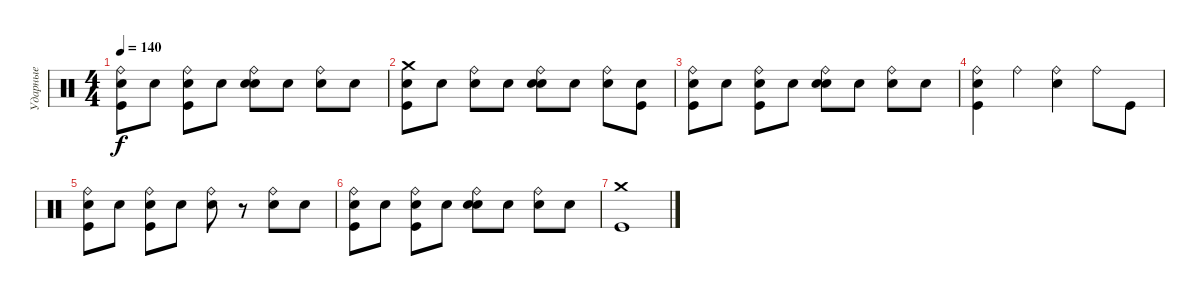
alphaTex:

\track ("Ударные" "Ударные") {instrument percussion}
\staff {score}
\articulation defaults
\ts (4 4)
\tempo 140
\clef neutral
\ks c
("Snare (hit)" "Kick (hit)" "Ride (bell)").8{dy f} "Snare (hit)".8 ("Snare (hit)" "Kick (hit)" "Ride (bell)").8 "Snare (hit)".8 ("Snare (hit)" "Snare (hit) 2" "Ride (bell)").8 "Snare (hit)".8 ("Snare (hit)" "Ride (bell)").8 "Snare (hit)".8 |
("Snare (hit)" "Crash medium (hit)" "Kick (hit)").8 "Snare (hit)".8 ("Snare (hit)" "Ride (bell)").8 "Snare (hit)".8 ("Snare (hit)" "Snare (hit) 2" "Ride (bell)").8 "Snare (hit)".8 ("Snare (hit)" "Ride (bell)").8 ("Snare (hit)" "Kick (hit)").8 |
("Snare (hit)" "Kick (hit)" "Ride (bell)").8 "Snare (hit)".8 ("Snare (hit)" "Kick (hit)" "Ride (bell)").8 "Snare (hit)".8 ("Snare (hit)" "Snare (hit) 2" "Ride (bell)").8 "Snare (hit)".8 ("Snare (hit)" "Ride (bell)").8 "Snare (hit)".8 |
("Snare (hit)" "Kick (hit)" "Ride (bell)").4 "Ride (bell)".4 ("Snare (hit) 2" "Ride (bell)").4 "Ride (bell)".8 "Kick (hit)".8 |
("Snare (hit)" "Kick (hit)" "Ride (bell)").8 "Snare (hit)".8 ("Snare (hit)" "Kick (hit)" "Ride (bell)").8 "Snare (hit)".8 ("Snare (hit) 2" "Ride (bell)").8 r.8 ("Snare (hit)" "Ride (bell)").8 "Snare (hit)".8 |
("Snare (hit)" "Kick (hit)" "Ride (bell)").8 "Snare (hit)".8 ("Snare (hit)" "Kick (hit)" "Ride (bell)").8 "Snare (hit)".8 ("Snare (hit)" "Snare (hit) 2" "Ride (bell)").8 "Snare (hit)".8 ("Snare (hit)" "Ride (bell)").8 "Snare (hit)".8 |
("Crash medium (hit)" "Kick (hit)").1
